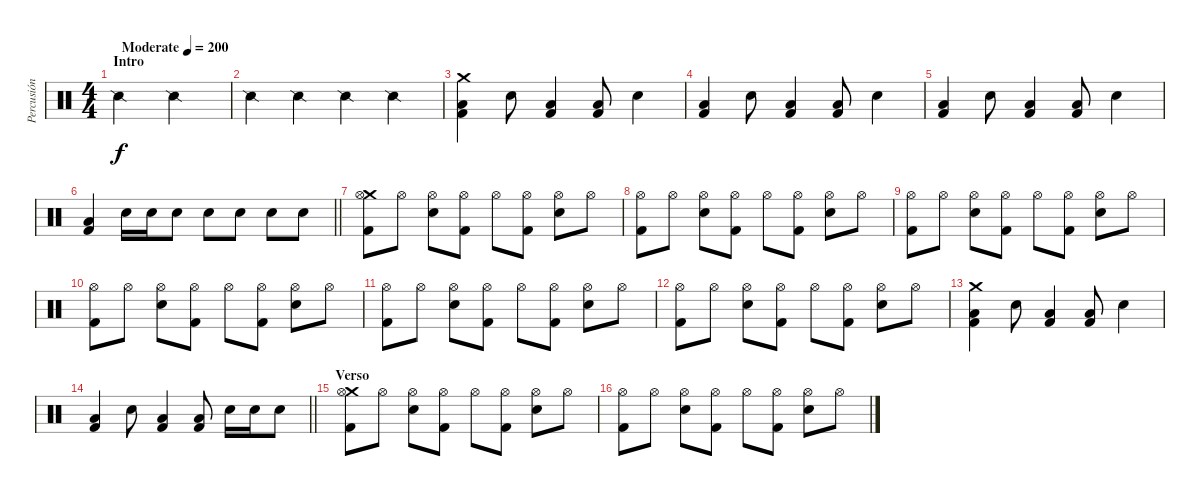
\track ("Percusión" "Percusión") {instrument percussion}
\staff {score}
\articulation defaults
\ts (4 4)
\section ("" "Intro")
\tempo (200 "Moderate")
\clef neutral
\ks c "Snare (side stick) 2".2{dy f} "Snare (side stick) 2".2
|
"Snare (side stick) 2".4 "Snare (side stick) 2".4 "Snare (side stick) 2".4 "Snare (side stick) 2".4 |
("Crash medium (hit)" "Low Floor Tom (hit)" "Kick (hit) 2").4 "Snare (hit) 2".8 ("Low Floor Tom (hit)" "Kick (hit) 2").4 ("Low Floor Tom (hit)" "Kick (hit) 2").8 "Snare (hit) 2".4 |
("Low Floor Tom (hit)" "Kick (hit) 2").4 "Snare (hit) 2".8 ("Low Floor Tom (hit)" "Kick (hit) 2").4 ("Low Floor Tom (hit)" "Kick (hit) 2").8 "Snare (hit) 2".4 |
("Low Floor Tom (hit)" "Kick (hit) 2").4 "Snare (hit) 2".8 ("Low Floor Tom (hit)" "Kick (hit) 2").4 ("Low Floor Tom (hit)" "Kick (hit) 2").8 "Snare (hit) 2".4 |
\barLineRight lightlight
("Low Floor Tom (hit)" "Kick (hit) 2").4 "Snare (hit) 2".16 "Snare (hit) 2".16 "Snare (hit) 2".8 "Snare (hit) 2".8 "Snare (hit) 2".8 "Snare (hit) 2".8 "Snare (hit) 2".8 |
("Crash medium (hit)" "Hi-Hat (open)" "Kick (hit) 2").8 "Hi-Hat (open)".8 ("Hi-Hat (open)" "Snare (hit) 2").8 ("Hi-Hat (open)" "Kick (hit) 2").8 "Hi-Hat (open)".8 ("Hi-Hat (open)" "Kick (hit) 2").8 ("Hi-Hat (open)" "Snare (hit) 2").8 "Hi-Hat (open)".8 |
("Hi-Hat (open)" "Kick (hit) 2").8 "Hi-Hat (open)".8 ("Hi-Hat (open)" "Snare (hit) 2").8 ("Hi-Hat (open)" "Kick (hit) 2").8 "Hi-Hat (open)".8 ("Hi-Hat (open)" "Kick (hit) 2").8 ("Hi-Hat (open)" "Snare (hit) 2").8 "Hi-Hat (open)".8 |
("Hi-Hat (open)" "Kick (hit) 2").8 "Hi-Hat (open)".8 ("Hi-Hat (open)" "Snare (hit) 2").8 ("Hi-Hat (open)" "Kick (hit) 2").8 "Hi-Hat (open)".8 ("Hi-Hat (open)" "Kick (hit) 2").8 ("Hi-Hat (open)" "Snare (hit) 2").8 "Hi-Hat (open)".8 |
("Hi-Hat (open)" "Kick (hit) 2").8 "Hi-Hat (open)".8 ("Hi-Hat (open)" "Snare (hit) 2").8 ("Hi-Hat (open)" "Kick (hit) 2").8 "Hi-Hat (open)".8 ("Hi-Hat (open)" "Kick (hit) 2").8 ("Hi-Hat (open)" "Snare (hit) 2").8 "Hi-Hat (open)".8 |
("Hi-Hat (open)" "Kick (hit) 2").8 "Hi-Hat (open)".8 ("Hi-Hat (open)" "Snare (hit) 2").8 ("Hi-Hat (open)" "Kick (hit) 2").8 "Hi-Hat (open)".8 ("Hi-Hat (open)" "Kick (hit) 2").8 ("Hi-Hat (open)" "Snare (hit) 2").8 "Hi-Hat (open)".8 |
("Hi-Hat (open)" "Kick (hit) 2").8 "Hi-Hat (open)".8 ("Hi-Hat (open)" "Snare (hit) 2").8 ("Hi-Hat (open)" "Kick (hit) 2").8 "Hi-Hat (open)".8 ("Hi-Hat (open)" "Kick (hit) 2").8 ("Hi-Hat (open)" "Snare (hit) 2").8 "Hi-Hat (open)".8 |
("Crash medium (hit)" "Low Floor Tom (hit)" "Kick (hit) 2").4 "Snare (hit) 2".8 ("Low Floor Tom (hit)" "Kick (hit) 2").4 ("Low Floor Tom (hit)" "Kick (hit) 2").8 "Snare (hit) 2".4 |
\barLineRight lightlight
("Low Floor Tom (hit)" "Kick (hit) 2").4 "Snare (hit) 2".8 ("Low Floor Tom (hit)" "Kick (hit) 2").4 ("Low Floor Tom (hit)" "Kick (hit) 2").8 "Snare (hit) 2".16 "Snare (hit) 2".16 "Snare (hit) 2".8 |
\section ("" "Verso")
("Crash medium (hit)" "Hi-Hat (open)" "Kick (hit) 2").8 "Hi-Hat (open)".8 ("Hi-Hat (open)" "Snare (hit) 2").8 ("Hi-Hat (open)" "Kick (hit) 2").8 "Hi-Hat (open)".8 ("Hi-Hat (open)" "Kick (hit) 2").8 ("Hi-Hat (open)" "Snare (hit) 2").8 "Hi-Hat (open)".8 |
("Hi-Hat (open)" "Kick (hit) 2").8 "Hi-Hat (open)".8 ("Hi-Hat (open)" "Snare (hit) 2").8 ("Hi-Hat (open)" "Kick (hit) 2").8 "Hi-Hat (open)".8 ("Hi-Hat (open)" "Kick (hit) 2").8 ("Hi-Hat (open)" "Snare (hit) 2").8 "Hi-Hat (open)".8
